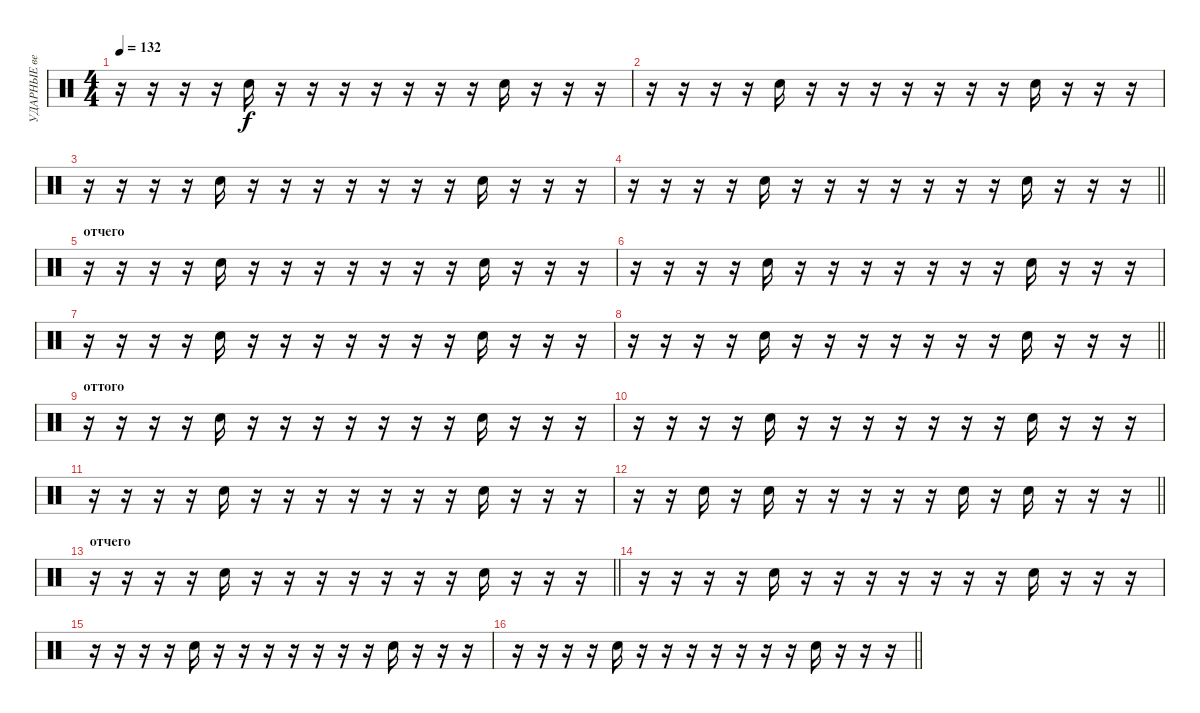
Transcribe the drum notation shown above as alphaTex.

\track ("УДАРНЫЕ ведущий" "УДАРНЫЕ ве") {instrument percussion}
\staff {score}
\articulation defaults
\ts (4 4)
\tempo 132
\clef neutral
\ks c
r.16{dy f} r.16 r.16 r.16 "Snare (hit) 2".16 r.16 r.16 r.16 r.16 r.16 r.16 r.16 "Snare (hit) 2".16 r.16 r.16 r.16 |
r.16 r.16 r.16 r.16 "Snare (hit) 2".16 r.16 r.16 r.16 r.16 r.16 r.16 r.16 "Snare (hit) 2".16 r.16 r.16 r.16 |
r.16 r.16 r.16 r.16 "Snare (hit) 2".16 r.16 r.16 r.16 r.16 r.16 r.16 r.16 "Snare (hit) 2".16 r.16 r.16 r.16 |
\barLineRight lightlight
r.16 r.16 r.16 r.16 "Snare (hit) 2".16 r.16 r.16 r.16 r.16 r.16 r.16 r.16 "Snare (hit) 2".16 r.16 r.16 r.16 |
\section ("" "отчего")
r.16 r.16 r.16 r.16 "Snare (hit) 2".16 r.16 r.16 r.16 r.16 r.16 r.16 r.16 "Snare (hit) 2".16 r.16 r.16 r.16 |
r.16 r.16 r.16 r.16 "Snare (hit) 2".16 r.16 r.16 r.16 r.16 r.16 r.16 r.16 "Snare (hit) 2".16 r.16 r.16 r.16 |
r.16 r.16 r.16 r.16 "Snare (hit) 2".16 r.16 r.16 r.16 r.16 r.16 r.16 r.16 "Snare (hit) 2".16 r.16 r.16 r.16 |
\barLineRight lightlight
r.16 r.16 r.16 r.16 "Snare (hit) 2".16 r.16 r.16 r.16 r.16 r.16 r.16 r.16 "Snare (hit) 2".16 r.16 r.16 r.16 |
\section ("" "оттого")
r.16 r.16 r.16 r.16 "Snare (hit) 2".16 r.16 r.16 r.16 r.16 r.16 r.16 r.16 "Snare (hit) 2".16 r.16 r.16 r.16 |
r.16 r.16 r.16 r.16 "Snare (hit) 2".16 r.16 r.16 r.16 r.16 r.16 r.16 r.16 "Snare (hit) 2".16 r.16 r.16 r.16 |
r.16 r.16 r.16 r.16 "Snare (hit) 2".16 r.16 r.16 r.16 r.16 r.16 r.16 r.16 "Snare (hit) 2".16 r.16 r.16 r.16 |
\barLineRight lightlight
r.16 r.16 "Snare (hit) 2".16 r.16 "Snare (hit) 2".16 r.16 r.16 r.16 r.16 r.16 "Snare (hit) 2".16 r.16 "Snare (hit) 2".16 r.16 r.16 r.16 |
\section ("" "отчего")
\barLineRight lightlight
r.16 r.16 r.16 r.16 "Snare (hit) 2".16 r.16 r.16 r.16 r.16 r.16 r.16 r.16 "Snare (hit) 2".16 r.16 r.16 r.16 |
r.16 r.16 r.16 r.16 "Snare (hit) 2".16 r.16 r.16 r.16 r.16 r.16 r.16 r.16 "Snare (hit) 2".16 r.16 r.16 r.16 |
r.16 r.16 r.16 r.16 "Snare (hit) 2".16 r.16 r.16 r.16 r.16 r.16 r.16 r.16 "Snare (hit) 2".16 r.16 r.16 r.16 |
\barLineRight lightlight
r.16 r.16 r.16 r.16 "Snare (hit) 2".16 r.16 r.16 r.16 r.16 r.16 r.16 r.16 "Snare (hit) 2".16 r.16 r.16 r.16
